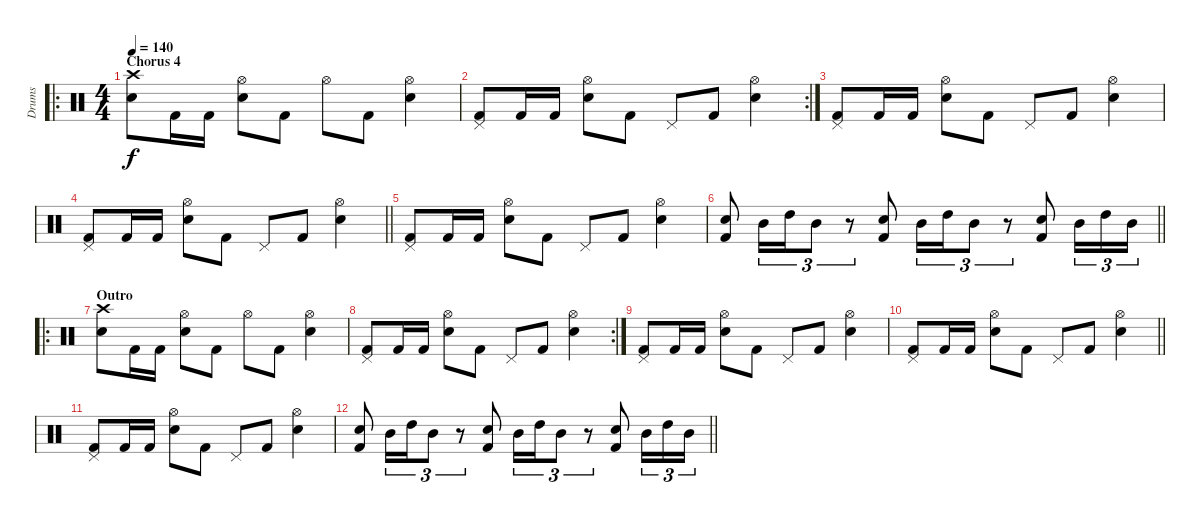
\track ("Drums" "Drums") {instrument percussion}
\staff {score}
\articulation defaults
\ro
\ts (4 4)
\section ("" "Chorus 4")
\tempo 140
\clef neutral
\ks c
("Crash high (hit)" "Electric Snare (hit)").8{dy f} "Kick (hit) 2".16 "Kick (hit) 2".16 ("Hi-Hat (open)" "Electric Snare (hit)").8 "Kick (hit) 2".8 "Hi-Hat (open)".8 "Kick (hit) 2".8 ("Hi-Hat (open)" "Electric Snare (hit)").4 |
\rc 2
("Pedal Hi-Hat (hit)" "Kick (hit) 2").8 "Kick (hit) 2".16 "Kick (hit) 2".16 ("Hi-Hat (open)" "Electric Snare (hit)").8 "Kick (hit) 2".8 "Pedal Hi-Hat (hit)".8 "Kick (hit) 2".8 ("Hi-Hat (open)" "Electric Snare (hit)").4 |
("Pedal Hi-Hat (hit)" "Kick (hit) 2").8 "Kick (hit) 2".16 "Kick (hit) 2".16 ("Hi-Hat (open)" "Electric Snare (hit)").8 "Kick (hit) 2".8 "Pedal Hi-Hat (hit)".8 "Kick (hit) 2".8 ("Hi-Hat (open)" "Electric Snare (hit)").4 |
\barLineRight lightlight
("Pedal Hi-Hat (hit)" "Kick (hit) 2").8 "Kick (hit) 2".16 "Kick (hit) 2".16 ("Hi-Hat (open)" "Electric Snare (hit)").8 "Kick (hit) 2".8 "Pedal Hi-Hat (hit)".8 "Kick (hit) 2".8 ("Hi-Hat (open)" "Electric Snare (hit)").4 |
("Pedal Hi-Hat (hit)" "Kick (hit) 2").8 "Kick (hit) 2".16 "Kick (hit) 2".16 ("Hi-Hat (open)" "Electric Snare (hit)").8 "Kick (hit) 2".8 "Pedal Hi-Hat (hit)".8 "Kick (hit) 2".8 ("Hi-Hat (open)" "Electric Snare (hit)").4 |
\barLineRight lightlight
("Electric Snare (hit)" "Kick (hit) 2").8 "Mid Tom (hit)".16{tu (3 2)} "High Tom (hit)".16{tu (3 2)} "Mid Tom (hit)".8{tu (3 2)} r.8{tu (3 2)} ("Electric Snare (hit)" "Kick (hit) 2").8 "Mid Tom (hit)".16{tu (3 2)} "High Tom (hit)".16{tu (3 2)} "Mid Tom (hit)".8{tu (3 2)} r.8{tu (3 2)} ("Electric Snare (hit)" "Kick (hit) 2").8 "Mid Tom (hit)".16{tu (3 2)} "High Tom (hit)".16{tu (3 2)} "Mid Tom (hit)".16{tu (3 2)} |
\ro
\section ("" "Outro")
("Crash high (hit)" "Electric Snare (hit)").8 "Kick (hit) 2".16 "Kick (hit) 2".16 ("Hi-Hat (open)" "Electric Snare (hit)").8 "Kick (hit) 2".8 "Hi-Hat (open)".8 "Kick (hit) 2".8 ("Hi-Hat (open)" "Electric Snare (hit)").4 |
\rc 2
("Pedal Hi-Hat (hit)" "Kick (hit) 2").8 "Kick (hit) 2".16 "Kick (hit) 2".16 ("Hi-Hat (open)" "Electric Snare (hit)").8 "Kick (hit) 2".8 "Pedal Hi-Hat (hit)".8 "Kick (hit) 2".8 ("Hi-Hat (open)" "Electric Snare (hit)").4 |
("Pedal Hi-Hat (hit)" "Kick (hit) 2").8 "Kick (hit) 2".16 "Kick (hit) 2".16 ("Hi-Hat (open)" "Electric Snare (hit)").8 "Kick (hit) 2".8 "Pedal Hi-Hat (hit)".8 "Kick (hit) 2".8 ("Hi-Hat (open)" "Electric Snare (hit)").4 |
\barLineRight lightlight
("Pedal Hi-Hat (hit)" "Kick (hit) 2").8 "Kick (hit) 2".16 "Kick (hit) 2".16 ("Hi-Hat (open)" "Electric Snare (hit)").8 "Kick (hit) 2".8 "Pedal Hi-Hat (hit)".8 "Kick (hit) 2".8 ("Hi-Hat (open)" "Electric Snare (hit)").4 |
("Pedal Hi-Hat (hit)" "Kick (hit) 2").8 "Kick (hit) 2".16 "Kick (hit) 2".16 ("Hi-Hat (open)" "Electric Snare (hit)").8 "Kick (hit) 2".8 "Pedal Hi-Hat (hit)".8 "Kick (hit) 2".8 ("Hi-Hat (open)" "Electric Snare (hit)").4 |
\barLineRight lightlight
("Electric Snare (hit)" "Kick (hit) 2").8 "Mid Tom (hit)".16{tu (3 2)} "High Tom (hit)".16{tu (3 2)} "Mid Tom (hit)".8{tu (3 2)} r.8{tu (3 2)} ("Electric Snare (hit)" "Kick (hit) 2").8 "Mid Tom (hit)".16{tu (3 2)} "High Tom (hit)".16{tu (3 2)} "Mid Tom (hit)".8{tu (3 2)} r.8{tu (3 2)} ("Electric Snare (hit)" "Kick (hit) 2").8 "Mid Tom (hit)".16{tu (3 2)} "High Tom (hit)".16{tu (3 2)} "Mid Tom (hit)".16{tu (3 2)}
